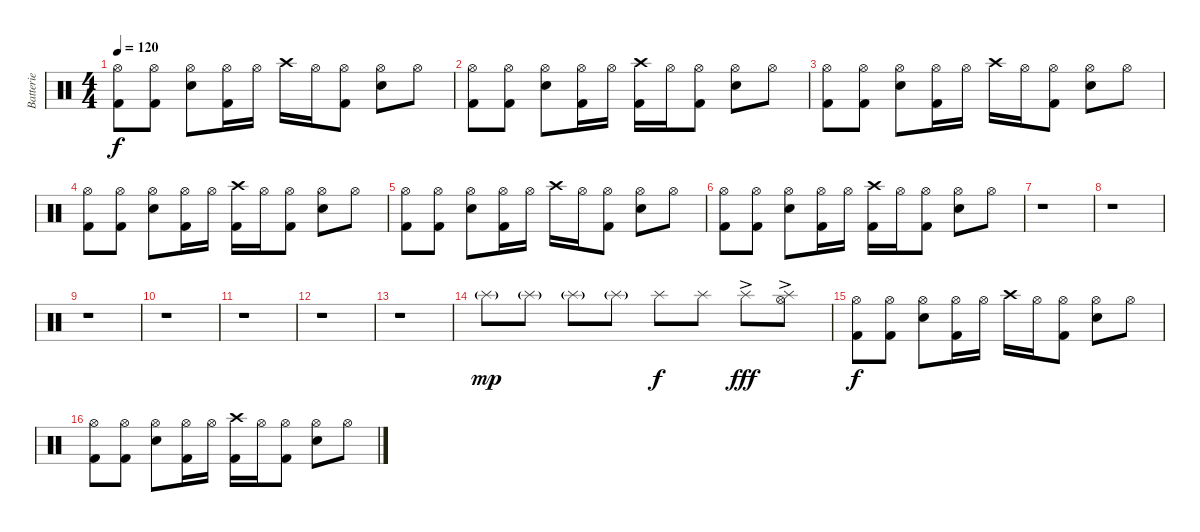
\track ("Batterie" "Batterie") {instrument percussion}
\staff {score}
\articulation defaults
\ts (4 4)
\tempo 120
\clef neutral
\ks c
("Hi-Hat (open)" "Kick (hit) 2").8{dy f} ("Hi-Hat (open)" "Kick (hit) 2").8 ("Hi-Hat (open)" "Snare (hit) 2").8 ("Hi-Hat (open)" "Kick (hit) 2").16 "Hi-Hat (open)".16 "Crash high (hit)".16 "Hi-Hat (open)".16 ("Hi-Hat (open)" "Kick (hit) 2").8 ("Hi-Hat (open)" "Snare (hit) 2").8 "Hi-Hat (open)".8 |
("Hi-Hat (open)" "Kick (hit) 2").8 ("Hi-Hat (open)" "Kick (hit) 2").8 ("Hi-Hat (open)" "Snare (hit) 2").8 ("Hi-Hat (open)" "Kick (hit) 2").16 "Hi-Hat (open)".16 ("Crash high (hit)" "Kick (hit) 2").16 "Hi-Hat (open)".16 ("Hi-Hat (open)" "Kick (hit) 2").8 ("Hi-Hat (open)" "Snare (hit) 2").8 "Hi-Hat (open)".8 |
("Hi-Hat (open)" "Kick (hit) 2").8 ("Hi-Hat (open)" "Kick (hit) 2").8 ("Hi-Hat (open)" "Snare (hit) 2").8 ("Hi-Hat (open)" "Kick (hit) 2").16 "Hi-Hat (open)".16 "Crash high (hit)".16 "Hi-Hat (open)".16 ("Hi-Hat (open)" "Kick (hit) 2").8 ("Hi-Hat (open)" "Snare (hit) 2").8 "Hi-Hat (open)".8 |
("Hi-Hat (open)" "Kick (hit) 2").8 ("Hi-Hat (open)" "Kick (hit) 2").8 ("Hi-Hat (open)" "Snare (hit) 2").8 ("Hi-Hat (open)" "Kick (hit) 2").16 "Hi-Hat (open)".16 ("Crash high (hit)" "Kick (hit) 2").16 "Hi-Hat (open)".16 ("Hi-Hat (open)" "Kick (hit) 2").8 ("Hi-Hat (open)" "Snare (hit) 2").8 "Hi-Hat (open)".8 |
("Hi-Hat (open)" "Kick (hit) 2").8 ("Hi-Hat (open)" "Kick (hit) 2").8 ("Hi-Hat (open)" "Snare (hit) 2").8 ("Hi-Hat (open)" "Kick (hit) 2").16 "Hi-Hat (open)".16 "Crash high (hit)".16 "Hi-Hat (open)".16 ("Hi-Hat (open)" "Kick (hit) 2").8 ("Hi-Hat (open)" "Snare (hit) 2").8 "Hi-Hat (open)".8 |
("Hi-Hat (open)" "Kick (hit) 2").8 ("Hi-Hat (open)" "Kick (hit) 2").8 ("Hi-Hat (open)" "Snare (hit) 2").8 ("Hi-Hat (open)" "Kick (hit) 2").16 "Hi-Hat (open)".16 ("Crash high (hit)" "Kick (hit) 2").16 "Hi-Hat (open)".16 ("Hi-Hat (open)" "Kick (hit) 2").8 ("Hi-Hat (open)" "Snare (hit) 2").8 "Hi-Hat (open)".8 |
r.1 |
r.1 |
r.1 |
r.1 |
r.1 |
r.1 |
r.1 |
"Splash (hit)"{g}.8{dy mp} "Splash (hit)"{g}.8 "Splash (hit)"{g}.8 "Splash (hit)"{g}.8 "Splash (hit)".8{dy f} "Splash (hit)".8 "Splash (hit)"{ac}.8{dy fff} ("Splash (hit)"{ac} "Hi-Hat (open)").8 |
("Hi-Hat (open)" "Kick (hit) 2").8{dy f} ("Hi-Hat (open)" "Kick (hit) 2").8 ("Hi-Hat (open)" "Snare (hit) 2").8 ("Hi-Hat (open)" "Kick (hit) 2").16 "Hi-Hat (open)".16 "Crash high (hit)".16 "Hi-Hat (open)".16 ("Hi-Hat (open)" "Kick (hit) 2").8 ("Hi-Hat (open)" "Snare (hit) 2").8 "Hi-Hat (open)".8 |
("Hi-Hat (open)" "Kick (hit) 2").8 ("Hi-Hat (open)" "Kick (hit) 2").8 ("Hi-Hat (open)" "Snare (hit) 2").8 ("Hi-Hat (open)" "Kick (hit) 2").16 "Hi-Hat (open)".16 ("Crash high (hit)" "Kick (hit) 2").16 "Hi-Hat (open)".16 ("Hi-Hat (open)" "Kick (hit) 2").8 ("Hi-Hat (open)" "Snare (hit) 2").8 "Hi-Hat (open)".8
